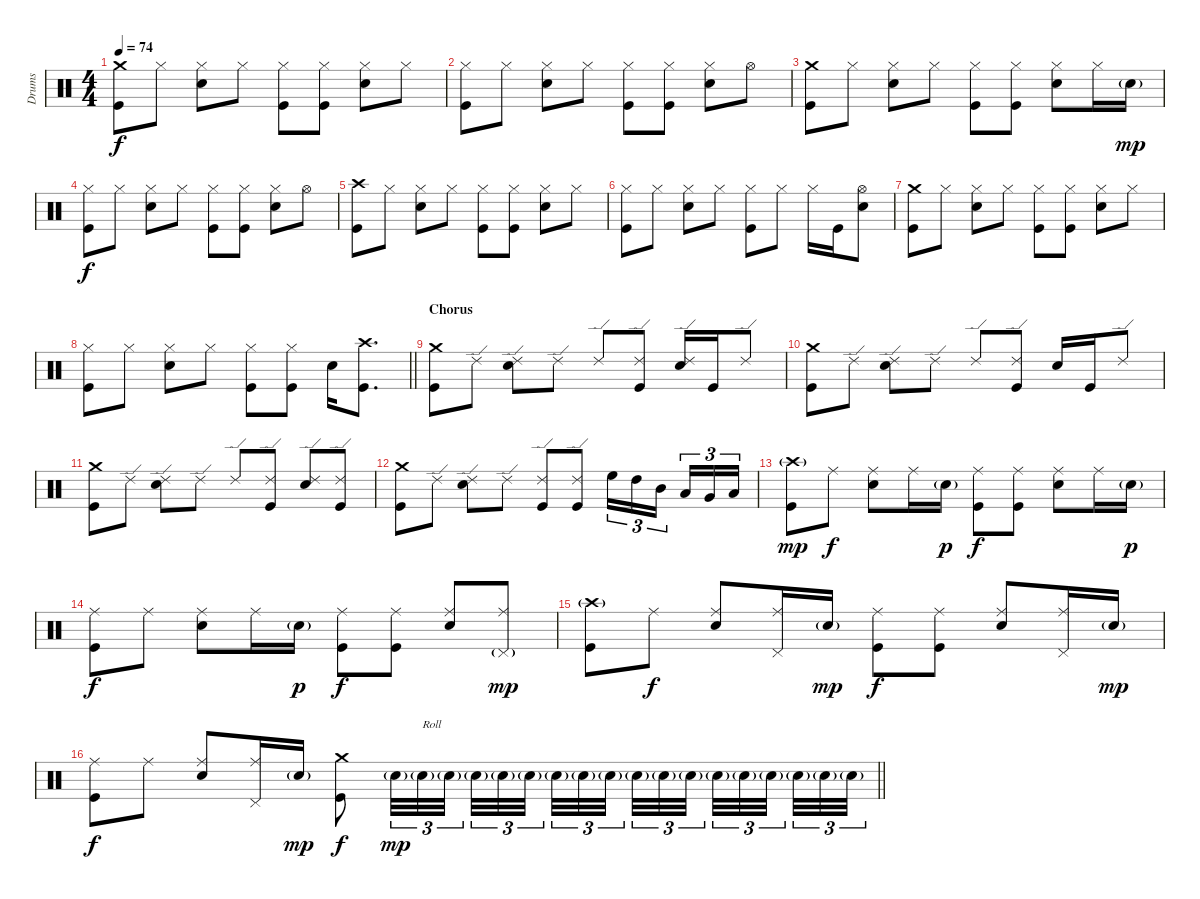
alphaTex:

\track ("Drums" "Drums") {instrument percussion}
\staff {score}
\articulation defaults
\ts (4 4)
\tempo 74
\clef neutral
\ks c
("Crash medium (hit)" "Kick (hit)").8{dy f} "Hi-Hat (closed)".8 ("Hi-Hat (closed)" "Snare (hit) 2").8 "Hi-Hat (closed)".8 ("Hi-Hat (closed)" "Kick (hit)").8 ("Hi-Hat (closed)" "Kick (hit)").8 ("Hi-Hat (closed)" "Snare (hit) 2").8 "Hi-Hat (closed)".8 |
("Hi-Hat (closed)" "Kick (hit)").8 "Hi-Hat (closed)".8 ("Hi-Hat (closed)" "Snare (hit) 2").8 "Hi-Hat (closed)".8 ("Hi-Hat (closed)" "Kick (hit)").8 ("Hi-Hat (closed)" "Kick (hit)").8 ("Hi-Hat (closed)" "Snare (hit) 2").8 "Hi-Hat (open)".8 |
("Crash medium (hit)" "Kick (hit)").8 "Hi-Hat (closed)".8 ("Hi-Hat (closed)" "Snare (hit) 2").8 "Hi-Hat (closed)".8 ("Hi-Hat (closed)" "Kick (hit)").8 ("Hi-Hat (closed)" "Kick (hit)").8 ("Hi-Hat (closed)" "Snare (hit) 2").8 "Hi-Hat (closed)".16 "Snare (hit) 2"{g}.16{dy mp} |
("Hi-Hat (closed)" "Kick (hit)").8{dy f} "Hi-Hat (closed)".8 ("Hi-Hat (closed)" "Snare (hit) 2").8 "Hi-Hat (closed)".8 ("Hi-Hat (closed)" "Kick (hit)").8 ("Hi-Hat (closed)" "Kick (hit)").8 ("Hi-Hat (closed)" "Snare (hit) 2").8 "Hi-Hat (open)".8 |
("Crash high (hit)" "Kick (hit)").8 "Hi-Hat (closed)".8 ("Hi-Hat (closed)" "Snare (hit) 2").8 "Hi-Hat (closed)".8 ("Hi-Hat (closed)" "Kick (hit)").8 ("Hi-Hat (closed)" "Kick (hit)").8 ("Hi-Hat (closed)" "Snare (hit) 2").8 "Hi-Hat (closed)".8 |
("Hi-Hat (closed)" "Kick (hit)").8 "Hi-Hat (closed)".8 ("Hi-Hat (closed)" "Snare (hit) 2").8 "Hi-Hat (closed)".8 ("Hi-Hat (closed)" "Kick (hit)").8 "Hi-Hat (closed)".8 "Hi-Hat (closed)".16 "Kick (hit)".16 ("Hi-Hat (open)" "Snare (hit) 2").8 |
("Crash medium (hit)" "Kick (hit)").8 "Hi-Hat (closed)".8 ("Hi-Hat (closed)" "Snare (hit) 2").8 "Hi-Hat (closed)".8 ("Hi-Hat (closed)" "Kick (hit)").8 ("Hi-Hat (closed)" "Kick (hit)").8 ("Hi-Hat (closed)" "Snare (hit) 2").8 "Hi-Hat (closed)".8 |
\barLineRight lightlight
("Hi-Hat (closed)" "Kick (hit)").8 "Hi-Hat (closed)".8 ("Hi-Hat (closed)" "Snare (hit) 2").8 "Hi-Hat (closed)".8 ("Hi-Hat (closed)" "Kick (hit)").8 ("Hi-Hat (closed)" "Kick (hit)").8 "Snare (hit) 2".16 ("Crash high (hit)" "Kick (hit)").8{d} |
\section ("" "Chorus")
("Crash medium (hit)" "Kick (hit)").8 "Ride (edge) 2".8 ("Ride (edge) 2" "Snare (hit) 2").8 "Ride (edge) 2".8 "Ride (edge) 2".8 ("Ride (edge) 2" "Kick (hit)").8 ("Ride (edge) 2" "Snare (hit) 2").16 "Kick (hit)".16 "Ride (edge) 2".8 |
("Crash medium (hit)" "Kick (hit)").8 "Ride (edge) 2".8 ("Ride (edge) 2" "Snare (hit) 2").8 "Ride (edge) 2".8 "Ride (edge) 2".8 ("Ride (edge) 2" "Kick (hit)").8 "Snare (hit) 2".16 "Kick (hit)".16 "Ride (edge) 2".8 |
("Crash medium (hit)" "Kick (hit)").8 "Ride (edge) 2".8 ("Ride (edge) 2" "Snare (hit) 2").8 "Ride (edge) 2".8 "Ride (edge) 2".8 ("Ride (edge) 2" "Kick (hit)").8 ("Ride (edge) 2" "Snare (hit) 2").8 ("Ride (edge) 2" "Kick (hit)").8 |
("Crash medium (hit)" "Kick (hit)").8 "Ride (edge) 2".8 ("Ride (edge) 2" "Snare (hit) 2").8 "Ride (edge) 2".8 ("Ride (edge) 2" "Kick (hit)").8 ("Ride (edge) 2" "Kick (hit)").8 "High Floor Tom (hit)".16{tu (3 2)} "High Tom (hit)".16{tu (3 2)} "Mid Tom (hit)".16{tu (3 2) beam splitsecondary} "Low Tom (hit)".16{tu (3 2)} "Very Low Tom (hit)".16{tu (3 2)} "Low Floor Tom (hit)".16{tu (3 2)} |
("Crash high (hit)"{g} "Kick (hit)").8{dy mp} "Ride (middle)".8{dy f} ("Ride (middle)" "Snare (hit) 2").8 "Ride (middle)".16 "Snare (hit) 2"{g}.16{dy p} ("Ride (middle)" "Kick (hit)").8{dy f} ("Ride (middle)" "Kick (hit)").8 ("Ride (middle)" "Snare (hit) 2").8 "Ride (middle)".16 "Snare (hit) 2"{g}.16{dy p} |
("Ride (middle)" "Kick (hit)").8{dy f} "Ride (middle)".8 ("Ride (middle)" "Snare (hit) 2").8 "Ride (middle)".16 "Snare (hit) 2"{g}.16{dy p} ("Ride (middle)" "Kick (hit)").8{dy f} ("Ride (middle)" "Kick (hit)").8 ("Ride (middle)" "Snare (hit) 2").8 ("Pedal Hi-Hat (hit)"{g} "Ride (middle)").8{dy mp} |
("Crash high (hit)"{g} "Kick (hit)").8 "Ride (middle)".8{dy f} ("Ride (middle)" "Snare (hit) 2").8 ("Pedal Hi-Hat (hit)" "Ride (middle)").16 "Snare (hit) 2"{g}.16{dy mp} ("Ride (middle)" "Kick (hit)").8{dy f} ("Ride (middle)" "Kick (hit)").8 ("Ride (middle)" "Snare (hit) 2").8 ("Pedal Hi-Hat (hit)" "Ride (middle)").16 "Snare (hit) 2"{g}.16{dy mp} |
\barLineRight lightlight
("Ride (middle)" "Kick (hit)").8{dy f} "Ride (middle)".8 ("Ride (middle)" "Snare (hit) 2").8 ("Pedal Hi-Hat (hit)" "Ride (middle)").16 "Snare (hit) 2"{g}.16{dy mp} ("Crash medium (hit)" "Kick (hit)").8{dy f} "Snare (hit) 2"{g}.32{tu (3 2) dy mp} "Snare (hit) 2"{g}.32{tu (3 2) txt "Roll"} "Snare (hit) 2"{g}.32{tu (3 2) beam splitsecondary} "Snare (hit) 2"{g}.32{tu (3 2)} "Snare (hit) 2"{g}.32{tu (3 2)} "Snare (hit) 2"{g}.32{tu (3 2)} "Snare (hit) 2"{g}.32{tu (3 2)} "Snare (hit) 2"{g}.32{tu (3 2)} "Snare (hit) 2"{g}.32{tu (3 2) beam splitsecondary} "Snare (hit) 2"{g}.32{tu (3 2)} "Snare (hit) 2"{g}.32{tu (3 2)} "Snare (hit) 2"{g}.32{tu (3 2) beam splitsecondary} "Snare (hit) 2"{g}.32{tu (3 2)} "Snare (hit) 2"{g}.32{tu (3 2)} "Snare (hit) 2"{g}.32{tu (3 2) beam splitsecondary} "Snare (hit) 2"{g}.32{tu (3 2)} "Snare (hit) 2"{g}.32{tu (3 2)} "Snare (hit) 2"{g}.32{tu (3 2)}
